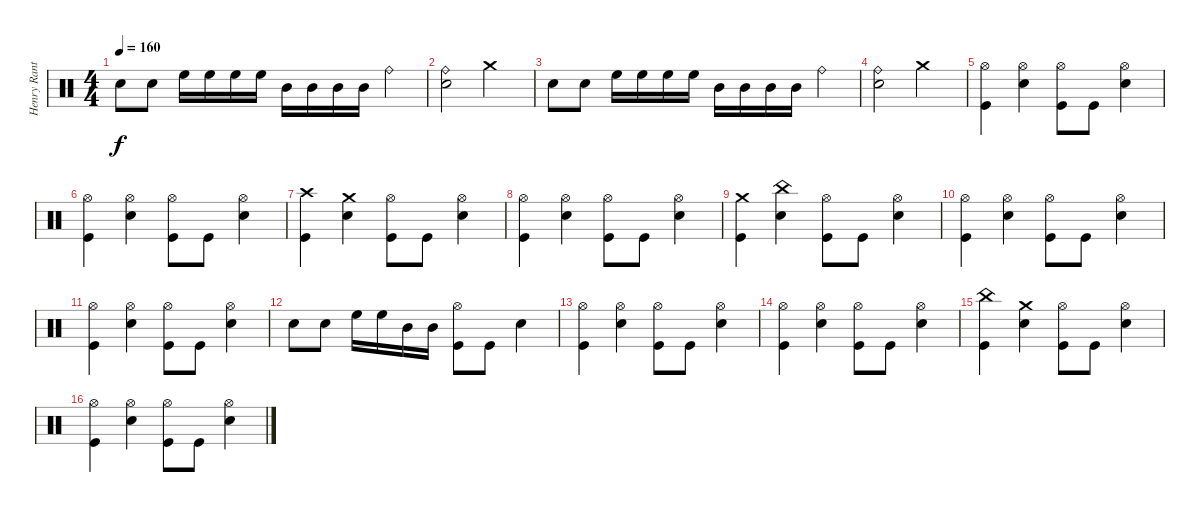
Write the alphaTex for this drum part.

\track ("Henry Ranta" "Henry Rant") {instrument percussion}
\staff {score}
\articulation defaults
\ts (4 4)
\tempo 160
\clef neutral
\ks c "Snare (hit) 2".8{dy f} "Snare (hit) 2".8 "High Floor Tom (hit)".16 "High Floor Tom (hit)".16 "High Floor Tom (hit)".16 "High Floor Tom (hit)".16 "Mid Tom (hit)".16 "Mid Tom (hit)".16 "Mid Tom (hit)".16 "Mid Tom (hit)".16 "Ride (bell)".4
|
("Ride (bell)" "Snare (hit) 2").2 "Crash medium (hit)".2 |
"Snare (hit) 2".8 "Snare (hit) 2".8 "High Floor Tom (hit)".16 "High Floor Tom (hit)".16 "High Floor Tom (hit)".16 "High Floor Tom (hit)".16 "Mid Tom (hit)".16 "Mid Tom (hit)".16 "Mid Tom (hit)".16 "Mid Tom (hit)".16 "Ride (bell)".4 |
("Ride (bell)" "Snare (hit) 2").2 "Crash medium (hit)".2 |
("Hi-Hat (open)" "Kick (hit)").4 ("Hi-Hat (open)" "Snare (hit) 2").4 ("Hi-Hat (open)" "Kick (hit)").8 "Kick (hit)".8 ("Hi-Hat (open)" "Snare (hit) 2").4 |
("Hi-Hat (open)" "Kick (hit)").4 ("Hi-Hat (open)" "Snare (hit) 2").4 ("Hi-Hat (open)" "Kick (hit)").8 "Kick (hit)".8 ("Hi-Hat (open)" "Snare (hit) 2").4 |
("Crash high (hit)" "Kick (hit)").4 ("Crash medium (hit)" "Snare (hit) 2").4 ("Hi-Hat (open)" "Kick (hit)").8 "Kick (hit)".8 ("Hi-Hat (open)" "Snare (hit) 2").4 |
("Hi-Hat (open)" "Kick (hit)").4 ("Hi-Hat (open)" "Snare (hit) 2").4 ("Hi-Hat (open)" "Kick (hit)").8 "Kick (hit)".8 ("Hi-Hat (open)" "Snare (hit) 2").4 |
("Crash medium (hit)" "Kick (hit)").4 ("China (hit)" "Snare (hit) 2").4 ("Hi-Hat (open)" "Kick (hit)").8 "Kick (hit)".8 ("Hi-Hat (open)" "Snare (hit) 2").4 |
("Hi-Hat (open)" "Kick (hit)").4 ("Hi-Hat (open)" "Snare (hit) 2").4 ("Hi-Hat (open)" "Kick (hit)").8 "Kick (hit)".8 ("Hi-Hat (open)" "Snare (hit) 2").4 |
("Hi-Hat (open)" "Kick (hit)").4 ("Hi-Hat (open)" "Snare (hit) 2").4 ("Hi-Hat (open)" "Kick (hit)").8 "Kick (hit)".8 ("Hi-Hat (open)" "Snare (hit) 2").4 |
"Snare (hit) 2".8 "Snare (hit) 2".8 "High Floor Tom (hit)".16 "High Floor Tom (hit)".16 "Mid Tom (hit)".16 "Mid Tom (hit)".16 ("Hi-Hat (open)" "Kick (hit)").8 "Kick (hit)".8 "Snare (hit) 2".4 |
("Hi-Hat (open)" "Kick (hit)").4 ("Hi-Hat (open)" "Snare (hit) 2").4 ("Hi-Hat (open)" "Kick (hit)").8 "Kick (hit)".8 ("Hi-Hat (open)" "Snare (hit) 2").4 |
("Hi-Hat (open)" "Kick (hit)").4 ("Hi-Hat (open)" "Snare (hit) 2").4 ("Hi-Hat (open)" "Kick (hit)").8 "Kick (hit)".8 ("Hi-Hat (open)" "Snare (hit) 2").4 |
("China (hit)" "Kick (hit)").4 ("Crash medium (hit)" "Snare (hit) 2").4 ("Hi-Hat (open)" "Kick (hit)").8 "Kick (hit)".8 ("Hi-Hat (open)" "Snare (hit) 2").4 |
("Hi-Hat (open)" "Kick (hit)").4 ("Hi-Hat (open)" "Snare (hit) 2").4 ("Hi-Hat (open)" "Kick (hit)").8 "Kick (hit)".8 ("Hi-Hat (open)" "Snare (hit) 2").4
